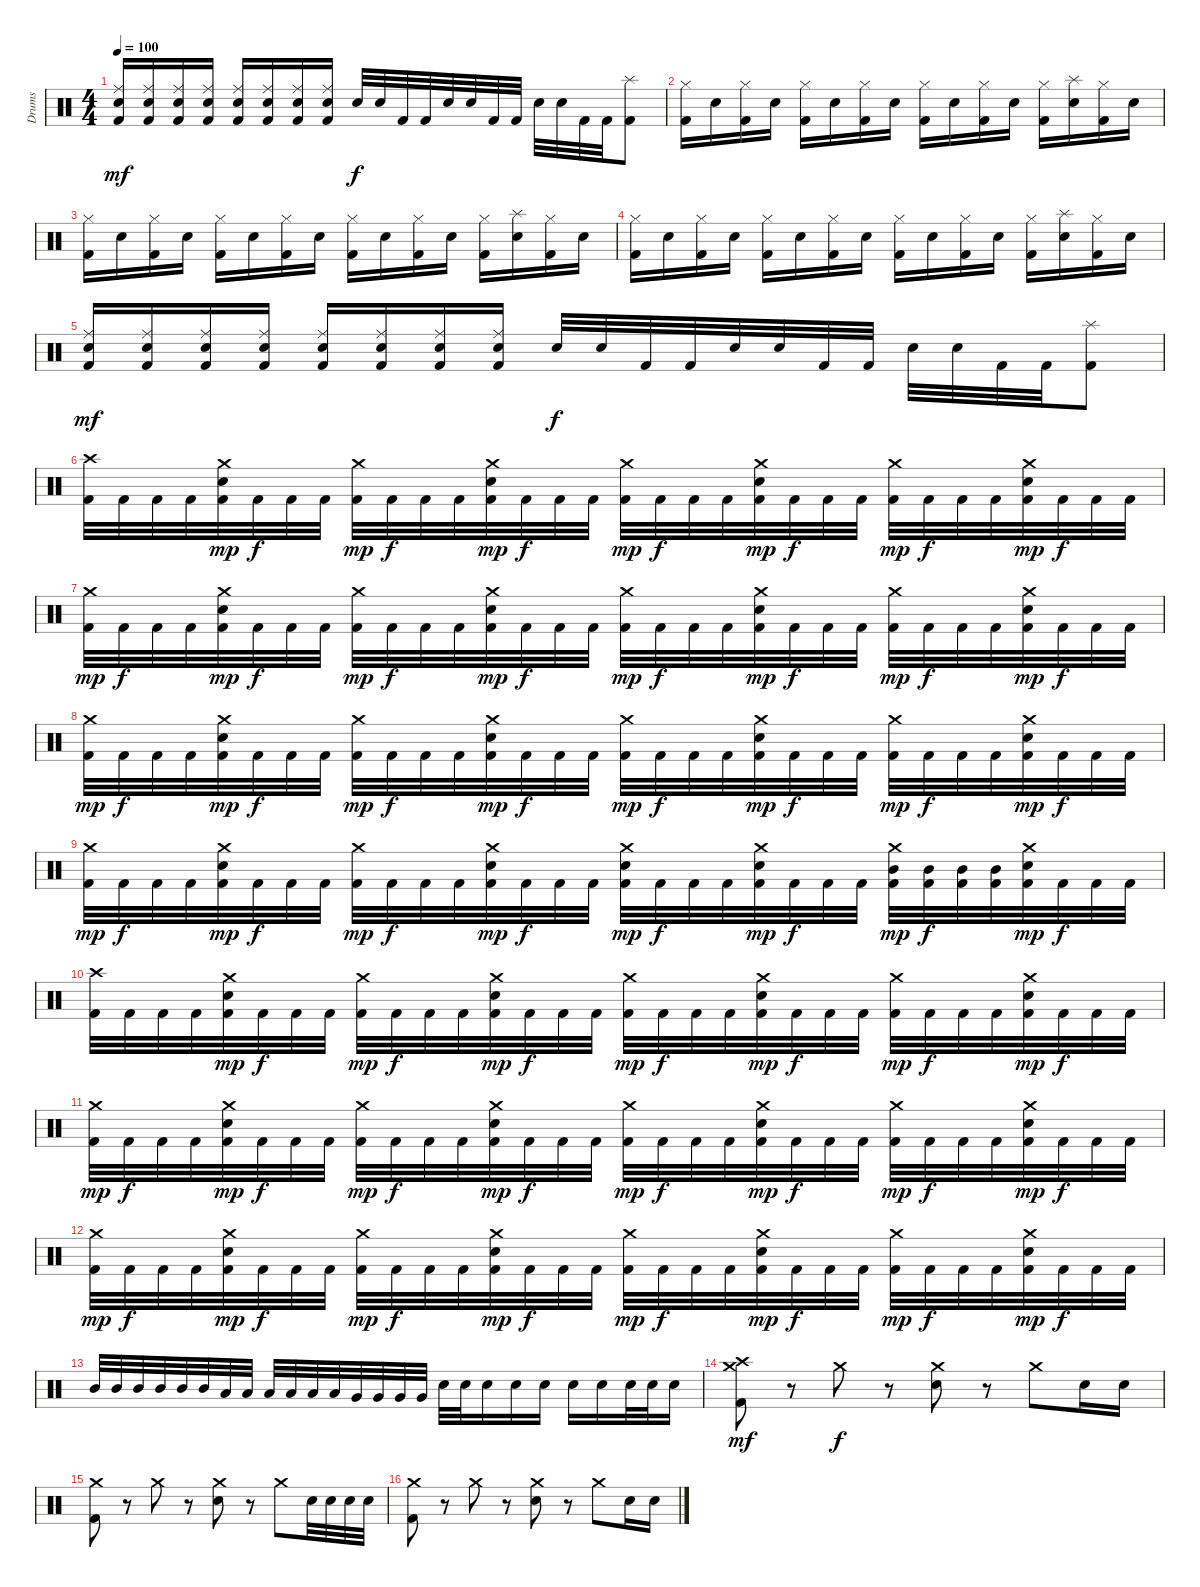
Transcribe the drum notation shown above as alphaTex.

\track ("Drums" "Drums") {instrument percussion}
\staff {score}
\articulation defaults
\ts (4 4)
\tempo 100
\clef neutral
\ks c
("Electric Snare (hit)" "Ride (middle)" "Kick (hit) 2").16{dy mf} ("Electric Snare (hit)" "Ride (middle)" "Kick (hit) 2").16 ("Electric Snare (hit)" "Ride (middle)" "Kick (hit) 2").16 ("Electric Snare (hit)" "Ride (middle)" "Kick (hit) 2").16 ("Electric Snare (hit)" "Ride (middle)" "Kick (hit) 2").16 ("Electric Snare (hit)" "Ride (middle)" "Kick (hit) 2").16 ("Electric Snare (hit)" "Ride (middle)" "Kick (hit) 2").16 ("Electric Snare (hit)" "Ride (middle)" "Kick (hit) 2").16 "Electric Snare (hit)".32{dy f} "Electric Snare (hit)".32 "Kick (hit) 2".32 "Kick (hit) 2".32 "Electric Snare (hit)".32 "Electric Snare (hit)".32 "Kick (hit) 2".32 "Kick (hit) 2".32 "Electric Snare (hit)".32 "Electric Snare (hit)".32 "Kick (hit) 2".32 "Kick (hit) 2".32 ("Kick (hit) 2" "Splash (hit)").8 |
("Kick (hit) 2" "Hi-Hat (closed)").16 "Electric Snare (hit)".16 ("Kick (hit) 2" "Hi-Hat (closed)").16 "Electric Snare (hit)".16 ("Kick (hit) 2" "Hi-Hat (closed)").16 "Electric Snare (hit)".16 ("Kick (hit) 2" "Hi-Hat (closed)").16 "Electric Snare (hit)".16 ("Kick (hit) 2" "Hi-Hat (closed)").16 "Electric Snare (hit)".16 ("Kick (hit) 2" "Hi-Hat (closed)").16 "Electric Snare (hit)".16 ("Kick (hit) 2" "Hi-Hat (closed)").16 ("Electric Snare (hit)" "Splash (hit)").16 ("Kick (hit) 2" "Hi-Hat (closed)").16 "Electric Snare (hit)".16 |
("Kick (hit) 2" "Hi-Hat (closed)").16 "Electric Snare (hit)".16 ("Kick (hit) 2" "Hi-Hat (closed)").16 "Electric Snare (hit)".16 ("Kick (hit) 2" "Hi-Hat (closed)").16 "Electric Snare (hit)".16 ("Kick (hit) 2" "Hi-Hat (closed)").16 "Electric Snare (hit)".16 ("Kick (hit) 2" "Hi-Hat (closed)").16 "Electric Snare (hit)".16 ("Kick (hit) 2" "Hi-Hat (closed)").16 "Electric Snare (hit)".16 ("Kick (hit) 2" "Hi-Hat (closed)").16 ("Electric Snare (hit)" "Splash (hit)").16 ("Kick (hit) 2" "Hi-Hat (closed)").16 "Electric Snare (hit)".16 |
("Kick (hit) 2" "Hi-Hat (closed)").16 "Electric Snare (hit)".16 ("Kick (hit) 2" "Hi-Hat (closed)").16 "Electric Snare (hit)".16 ("Kick (hit) 2" "Hi-Hat (closed)").16 "Electric Snare (hit)".16 ("Kick (hit) 2" "Hi-Hat (closed)").16 "Electric Snare (hit)".16 ("Kick (hit) 2" "Hi-Hat (closed)").16 "Electric Snare (hit)".16 ("Kick (hit) 2" "Hi-Hat (closed)").16 "Electric Snare (hit)".16 ("Kick (hit) 2" "Hi-Hat (closed)").16 ("Electric Snare (hit)" "Splash (hit)").16 ("Kick (hit) 2" "Hi-Hat (closed)").16 "Electric Snare (hit)".16 |
("Electric Snare (hit)" "Ride (middle)" "Kick (hit) 2").16{dy mf} ("Electric Snare (hit)" "Ride (middle)" "Kick (hit) 2").16 ("Electric Snare (hit)" "Ride (middle)" "Kick (hit) 2").16 ("Electric Snare (hit)" "Ride (middle)" "Kick (hit) 2").16 ("Electric Snare (hit)" "Ride (middle)" "Kick (hit) 2").16 ("Electric Snare (hit)" "Ride (middle)" "Kick (hit) 2").16 ("Electric Snare (hit)" "Ride (middle)" "Kick (hit) 2").16 ("Electric Snare (hit)" "Ride (middle)" "Kick (hit) 2").16 "Electric Snare (hit)".32{dy f} "Electric Snare (hit)".32 "Kick (hit) 2".32 "Kick (hit) 2".32 "Electric Snare (hit)".32 "Electric Snare (hit)".32 "Kick (hit) 2".32 "Kick (hit) 2".32 "Electric Snare (hit)".32 "Electric Snare (hit)".32 "Kick (hit) 2".32 "Kick (hit) 2".32 ("Kick (hit) 2" "Splash (hit)").8 |
("Kick (hit) 2" "Crash high (hit)").32 "Kick (hit) 2".32 "Kick (hit) 2".32 "Kick (hit) 2".32 ("Kick (hit) 2" "Crash medium (hit)" "Electric Snare (hit)").32{dy mp} "Kick (hit) 2".32{dy f} "Kick (hit) 2".32 "Kick (hit) 2".32 ("Kick (hit) 2" "Crash medium (hit)").32{dy mp} "Kick (hit) 2".32{dy f} "Kick (hit) 2".32 "Kick (hit) 2".32 ("Kick (hit) 2" "Crash medium (hit)" "Electric Snare (hit)").32{dy mp} "Kick (hit) 2".32{dy f} "Kick (hit) 2".32 "Kick (hit) 2".32 ("Kick (hit) 2" "Crash medium (hit)").32{dy mp} "Kick (hit) 2".32{dy f} "Kick (hit) 2".32 "Kick (hit) 2".32 ("Kick (hit) 2" "Crash medium (hit)" "Electric Snare (hit)").32{dy mp} "Kick (hit) 2".32{dy f} "Kick (hit) 2".32 "Kick (hit) 2".32 ("Kick (hit) 2" "Crash medium (hit)").32{dy mp} "Kick (hit) 2".32{dy f} "Kick (hit) 2".32 "Kick (hit) 2".32 ("Kick (hit) 2" "Crash medium (hit)" "Electric Snare (hit)").32{dy mp} "Kick (hit) 2".32{dy f} "Kick (hit) 2".32 "Kick (hit) 2".32 |
("Kick (hit) 2" "Crash medium (hit)").32{dy mp} "Kick (hit) 2".32{dy f} "Kick (hit) 2".32 "Kick (hit) 2".32 ("Kick (hit) 2" "Crash medium (hit)" "Electric Snare (hit)").32{dy mp} "Kick (hit) 2".32{dy f} "Kick (hit) 2".32 "Kick (hit) 2".32 ("Kick (hit) 2" "Crash medium (hit)").32{dy mp} "Kick (hit) 2".32{dy f} "Kick (hit) 2".32 "Kick (hit) 2".32 ("Kick (hit) 2" "Crash medium (hit)" "Electric Snare (hit)").32{dy mp} "Kick (hit) 2".32{dy f} "Kick (hit) 2".32 "Kick (hit) 2".32 ("Kick (hit) 2" "Crash medium (hit)").32{dy mp} "Kick (hit) 2".32{dy f} "Kick (hit) 2".32 "Kick (hit) 2".32 ("Kick (hit) 2" "Crash medium (hit)" "Electric Snare (hit)").32{dy mp} "Kick (hit) 2".32{dy f} "Kick (hit) 2".32 "Kick (hit) 2".32 ("Kick (hit) 2" "Crash medium (hit)").32{dy mp} "Kick (hit) 2".32{dy f} "Kick (hit) 2".32 "Kick (hit) 2".32 ("Kick (hit) 2" "Crash medium (hit)" "Electric Snare (hit)").32{dy mp} "Kick (hit) 2".32{dy f} "Kick (hit) 2".32 "Kick (hit) 2".32 |
("Kick (hit) 2" "Crash medium (hit)").32{dy mp} "Kick (hit) 2".32{dy f} "Kick (hit) 2".32 "Kick (hit) 2".32 ("Kick (hit) 2" "Crash medium (hit)" "Electric Snare (hit)").32{dy mp} "Kick (hit) 2".32{dy f} "Kick (hit) 2".32 "Kick (hit) 2".32 ("Kick (hit) 2" "Crash medium (hit)").32{dy mp} "Kick (hit) 2".32{dy f} "Kick (hit) 2".32 "Kick (hit) 2".32 ("Kick (hit) 2" "Crash medium (hit)" "Electric Snare (hit)").32{dy mp} "Kick (hit) 2".32{dy f} "Kick (hit) 2".32 "Kick (hit) 2".32 ("Kick (hit) 2" "Crash medium (hit)").32{dy mp} "Kick (hit) 2".32{dy f} "Kick (hit) 2".32 "Kick (hit) 2".32 ("Kick (hit) 2" "Crash medium (hit)" "Electric Snare (hit)").32{dy mp} "Kick (hit) 2".32{dy f} "Kick (hit) 2".32 "Kick (hit) 2".32 ("Kick (hit) 2" "Crash medium (hit)").32{dy mp} "Kick (hit) 2".32{dy f} "Kick (hit) 2".32 "Kick (hit) 2".32 ("Kick (hit) 2" "Crash medium (hit)" "Electric Snare (hit)").32{dy mp} "Kick (hit) 2".32{dy f} "Kick (hit) 2".32 "Kick (hit) 2".32 |
("Kick (hit) 2" "Crash medium (hit)").32{dy mp} "Kick (hit) 2".32{dy f} "Kick (hit) 2".32 "Kick (hit) 2".32 ("Kick (hit) 2" "Crash medium (hit)" "Electric Snare (hit)").32{dy mp} "Kick (hit) 2".32{dy f} "Kick (hit) 2".32 "Kick (hit) 2".32 ("Kick (hit) 2" "Crash medium (hit)").32{dy mp} "Kick (hit) 2".32{dy f} "Kick (hit) 2".32 "Kick (hit) 2".32 ("Kick (hit) 2" "Crash medium (hit)" "Electric Snare (hit)").32{dy mp} "Kick (hit) 2".32{dy f} "Kick (hit) 2".32 "Kick (hit) 2".32 ("Kick (hit) 2" "Crash medium (hit)" "Electric Snare (hit)").32{dy mp} "Kick (hit) 2".32{dy f} "Kick (hit) 2".32 "Kick (hit) 2".32 ("Kick (hit) 2" "Crash medium (hit)" "Electric Snare (hit)").32{dy mp} "Kick (hit) 2".32{dy f} "Kick (hit) 2".32 "Kick (hit) 2".32 ("Kick (hit) 2" "Crash medium (hit)" "Mid Tom (hit)").32{dy mp} ("Kick (hit) 2" "Mid Tom (hit)").32{dy f} ("Kick (hit) 2" "Mid Tom (hit)").32 ("Kick (hit) 2" "Mid Tom (hit)").32 ("Kick (hit) 2" "Crash medium (hit)" "Electric Snare (hit)").32{dy mp} "Kick (hit) 2".32{dy f} "Kick (hit) 2".32 "Kick (hit) 2".32 |
("Kick (hit) 2" "Crash high (hit)").32 "Kick (hit) 2".32 "Kick (hit) 2".32 "Kick (hit) 2".32 ("Kick (hit) 2" "Crash medium (hit)" "Electric Snare (hit)").32{dy mp} "Kick (hit) 2".32{dy f} "Kick (hit) 2".32 "Kick (hit) 2".32 ("Kick (hit) 2" "Crash medium (hit)").32{dy mp} "Kick (hit) 2".32{dy f} "Kick (hit) 2".32 "Kick (hit) 2".32 ("Kick (hit) 2" "Crash medium (hit)" "Electric Snare (hit)").32{dy mp} "Kick (hit) 2".32{dy f} "Kick (hit) 2".32 "Kick (hit) 2".32 ("Kick (hit) 2" "Crash medium (hit)").32{dy mp} "Kick (hit) 2".32{dy f} "Kick (hit) 2".32 "Kick (hit) 2".32 ("Kick (hit) 2" "Crash medium (hit)" "Electric Snare (hit)").32{dy mp} "Kick (hit) 2".32{dy f} "Kick (hit) 2".32 "Kick (hit) 2".32 ("Kick (hit) 2" "Crash medium (hit)").32{dy mp} "Kick (hit) 2".32{dy f} "Kick (hit) 2".32 "Kick (hit) 2".32 ("Kick (hit) 2" "Crash medium (hit)" "Electric Snare (hit)").32{dy mp} "Kick (hit) 2".32{dy f} "Kick (hit) 2".32 "Kick (hit) 2".32 |
("Kick (hit) 2" "Crash medium (hit)").32{dy mp} "Kick (hit) 2".32{dy f} "Kick (hit) 2".32 "Kick (hit) 2".32 ("Kick (hit) 2" "Crash medium (hit)" "Electric Snare (hit)").32{dy mp} "Kick (hit) 2".32{dy f} "Kick (hit) 2".32 "Kick (hit) 2".32 ("Kick (hit) 2" "Crash medium (hit)").32{dy mp} "Kick (hit) 2".32{dy f} "Kick (hit) 2".32 "Kick (hit) 2".32 ("Kick (hit) 2" "Crash medium (hit)" "Electric Snare (hit)").32{dy mp} "Kick (hit) 2".32{dy f} "Kick (hit) 2".32 "Kick (hit) 2".32 ("Kick (hit) 2" "Crash medium (hit)").32{dy mp} "Kick (hit) 2".32{dy f} "Kick (hit) 2".32 "Kick (hit) 2".32 ("Kick (hit) 2" "Crash medium (hit)" "Electric Snare (hit)").32{dy mp} "Kick (hit) 2".32{dy f} "Kick (hit) 2".32 "Kick (hit) 2".32 ("Kick (hit) 2" "Crash medium (hit)").32{dy mp} "Kick (hit) 2".32{dy f} "Kick (hit) 2".32 "Kick (hit) 2".32 ("Kick (hit) 2" "Crash medium (hit)" "Electric Snare (hit)").32{dy mp} "Kick (hit) 2".32{dy f} "Kick (hit) 2".32 "Kick (hit) 2".32 |
("Kick (hit) 2" "Crash medium (hit)").32{dy mp} "Kick (hit) 2".32{dy f} "Kick (hit) 2".32 "Kick (hit) 2".32 ("Kick (hit) 2" "Crash medium (hit)" "Electric Snare (hit)").32{dy mp} "Kick (hit) 2".32{dy f} "Kick (hit) 2".32 "Kick (hit) 2".32 ("Kick (hit) 2" "Crash medium (hit)").32{dy mp} "Kick (hit) 2".32{dy f} "Kick (hit) 2".32 "Kick (hit) 2".32 ("Kick (hit) 2" "Crash medium (hit)" "Electric Snare (hit)").32{dy mp} "Kick (hit) 2".32{dy f} "Kick (hit) 2".32 "Kick (hit) 2".32 ("Kick (hit) 2" "Crash medium (hit)").32{dy mp} "Kick (hit) 2".32{dy f} "Kick (hit) 2".32 "Kick (hit) 2".32 ("Kick (hit) 2" "Crash medium (hit)" "Electric Snare (hit)").32{dy mp} "Kick (hit) 2".32{dy f} "Kick (hit) 2".32 "Kick (hit) 2".32 ("Kick (hit) 2" "Crash medium (hit)").32{dy mp} "Kick (hit) 2".32{dy f} "Kick (hit) 2".32 "Kick (hit) 2".32 ("Kick (hit) 2" "Crash medium (hit)" "Electric Snare (hit)").32{dy mp} "Kick (hit) 2".32{dy f} "Kick (hit) 2".32 "Kick (hit) 2".32 |
"Mid Tom (hit)".32 "Mid Tom (hit)".32 "Mid Tom (hit)".32 "Mid Tom (hit)".32 "Mid Tom (hit)".32 "Mid Tom (hit)".32 "Low Tom (hit)".32 "Low Tom (hit)".32 "Low Tom (hit)".32 "Low Tom (hit)".32 "Low Tom (hit)".32 "Low Tom (hit)".32 "Very Low Tom (hit)".32 "Very Low Tom (hit)".32 "Very Low Tom (hit)".32 "Very Low Tom (hit)".32 "Electric Snare (hit)".32 "Electric Snare (hit)".32 "Electric Snare (hit)".16 "Electric Snare (hit)".16 "Electric Snare (hit)".16 "Electric Snare (hit)".16 "Electric Snare (hit)".16 "Electric Snare (hit)".32 "Electric Snare (hit)".32 "Electric Snare (hit)".16 |
("Kick (hit) 2" "Crash high (hit)" "Crash medium (hit)").8{dy mf} r.8 "Crash medium (hit)".8{dy f} r.8 ("Electric Snare (hit)" "Crash medium (hit)").8 r.8 "Crash medium (hit)".8 "Electric Snare (hit)".16 "Electric Snare (hit)".16 |
("Kick (hit) 2" "Crash medium (hit)").8 r.8 "Crash medium (hit)".8 r.8 ("Electric Snare (hit)" "Crash medium (hit)").8 r.8 "Crash medium (hit)".8 "Electric Snare (hit)".32 "Electric Snare (hit)".32 "Electric Snare (hit)".32 "Electric Snare (hit)".32 |
("Kick (hit) 2" "Crash medium (hit)").8 r.8 "Crash medium (hit)".8 r.8 ("Electric Snare (hit)" "Crash medium (hit)").8 r.8 "Crash medium (hit)".8 "Electric Snare (hit)".16 "Electric Snare (hit)".16
